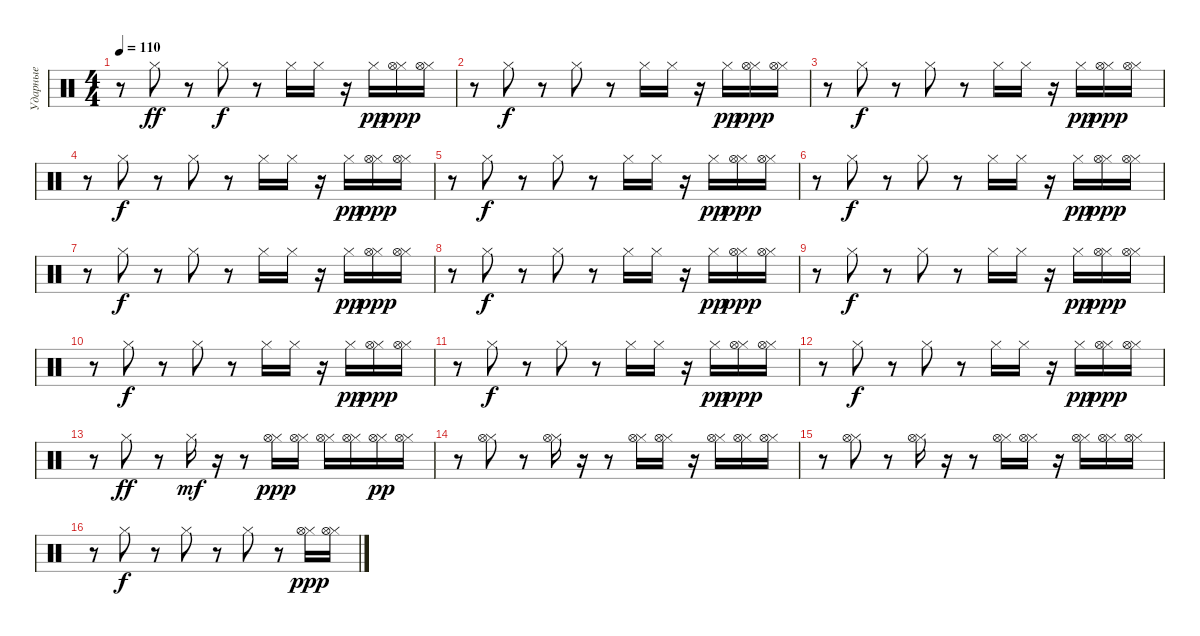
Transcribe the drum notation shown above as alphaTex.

\track ("Ударные" "Ударные") {instrument percussion}
\staff {score}
\articulation defaults
\ts (4 4)
\tempo 110
\clef neutral
\ks c
r.8{dy ff} "Hi-Hat (closed)".8 r.8 "Hi-Hat (closed)".8{dy f} r.8 "Hi-Hat (closed)".16 "Hi-Hat (closed)".16 r.16 "Hi-Hat (closed)".16{dy pp} ("Hi-Hat (closed)" "Hi-Hat (open)").16{dy ppp} ("Hi-Hat (closed)" "Hi-Hat (open)").16 |
r.8 "Hi-Hat (closed)".8{dy f} r.8 "Hi-Hat (closed)".8 r.8 "Hi-Hat (closed)".16 "Hi-Hat (closed)".16 r.16 "Hi-Hat (closed)".16{dy pp} ("Hi-Hat (closed)" "Hi-Hat (open)").16{dy ppp} ("Hi-Hat (closed)" "Hi-Hat (open)").16 |
r.8 "Hi-Hat (closed)".8{dy f} r.8 "Hi-Hat (closed)".8 r.8 "Hi-Hat (closed)".16 "Hi-Hat (closed)".16 r.16 "Hi-Hat (closed)".16{dy pp} ("Hi-Hat (closed)" "Hi-Hat (open)").16{dy ppp} ("Hi-Hat (closed)" "Hi-Hat (open)").16 |
r.8 "Hi-Hat (closed)".8{dy f} r.8 "Hi-Hat (closed)".8 r.8 "Hi-Hat (closed)".16 "Hi-Hat (closed)".16 r.16 "Hi-Hat (closed)".16{dy pp} ("Hi-Hat (closed)" "Hi-Hat (open)").16{dy ppp} ("Hi-Hat (closed)" "Hi-Hat (open)").16 |
r.8 "Hi-Hat (closed)".8{dy f} r.8 "Hi-Hat (closed)".8 r.8 "Hi-Hat (closed)".16 "Hi-Hat (closed)".16 r.16 "Hi-Hat (closed)".16{dy pp} ("Hi-Hat (closed)" "Hi-Hat (open)").16{dy ppp} ("Hi-Hat (closed)" "Hi-Hat (open)").16 |
r.8 "Hi-Hat (closed)".8{dy f} r.8 "Hi-Hat (closed)".8 r.8 "Hi-Hat (closed)".16 "Hi-Hat (closed)".16 r.16 "Hi-Hat (closed)".16{dy pp} ("Hi-Hat (closed)" "Hi-Hat (open)").16{dy ppp} ("Hi-Hat (closed)" "Hi-Hat (open)").16 |
r.8 "Hi-Hat (closed)".8{dy f} r.8 "Hi-Hat (closed)".8 r.8 "Hi-Hat (closed)".16 "Hi-Hat (closed)".16 r.16 "Hi-Hat (closed)".16{dy pp} ("Hi-Hat (closed)" "Hi-Hat (open)").16{dy ppp} ("Hi-Hat (closed)" "Hi-Hat (open)").16 |
r.8 "Hi-Hat (closed)".8{dy f} r.8 "Hi-Hat (closed)".8 r.8 "Hi-Hat (closed)".16 "Hi-Hat (closed)".16 r.16 "Hi-Hat (closed)".16{dy pp} ("Hi-Hat (closed)" "Hi-Hat (open)").16{dy ppp} ("Hi-Hat (closed)" "Hi-Hat (open)").16 |
r.8 "Hi-Hat (closed)".8{dy f} r.8 "Hi-Hat (closed)".8 r.8 "Hi-Hat (closed)".16 "Hi-Hat (closed)".16 r.16 "Hi-Hat (closed)".16{dy pp} ("Hi-Hat (closed)" "Hi-Hat (open)").16{dy ppp} ("Hi-Hat (closed)" "Hi-Hat (open)").16 |
r.8 "Hi-Hat (closed)".8{dy f} r.8 "Hi-Hat (closed)".8 r.8 "Hi-Hat (closed)".16 "Hi-Hat (closed)".16 r.16 "Hi-Hat (closed)".16{dy pp} ("Hi-Hat (closed)" "Hi-Hat (open)").16{dy ppp} ("Hi-Hat (closed)" "Hi-Hat (open)").16 |
r.8 "Hi-Hat (closed)".8{dy f} r.8 "Hi-Hat (closed)".8 r.8 "Hi-Hat (closed)".16 "Hi-Hat (closed)".16 r.16 "Hi-Hat (closed)".16{dy pp} ("Hi-Hat (closed)" "Hi-Hat (open)").16{dy ppp} ("Hi-Hat (closed)" "Hi-Hat (open)").16 |
r.8 "Hi-Hat (closed)".8{dy f} r.8 "Hi-Hat (closed)".8 r.8 "Hi-Hat (closed)".16 "Hi-Hat (closed)".16 r.16 "Hi-Hat (closed)".16{dy pp} ("Hi-Hat (closed)" "Hi-Hat (open)").16{dy ppp} ("Hi-Hat (closed)" "Hi-Hat (open)").16 |
r.8 "Hi-Hat (closed)".8{dy ff} r.8 "Hi-Hat (closed)".16{dy mf} r.16 r.8 ("Hi-Hat (closed)" "Hi-Hat (open)").16{dy ppp} ("Hi-Hat (closed)" "Hi-Hat (open)").16 ("Hi-Hat (closed)" "Hi-Hat (open)").16 ("Hi-Hat (closed)" "Hi-Hat (open)").16 ("Hi-Hat (closed)" "Hi-Hat (open)").16{dy pp} ("Hi-Hat (closed)" "Hi-Hat (open)").16 |
r.8 ("Hi-Hat (closed)" "Hi-Hat (open)").8 r.8 ("Hi-Hat (closed)" "Hi-Hat (open)").16 r.16 r.8 ("Hi-Hat (closed)" "Hi-Hat (open)").16 ("Hi-Hat (closed)" "Hi-Hat (open)").16 r.16 ("Hi-Hat (closed)" "Hi-Hat (open)").16 ("Hi-Hat (closed)" "Hi-Hat (open)").16 ("Hi-Hat (closed)" "Hi-Hat (open)").16 |
r.8 ("Hi-Hat (closed)" "Hi-Hat (open)").8 r.8 ("Hi-Hat (closed)" "Hi-Hat (open)").16 r.16 r.8 ("Hi-Hat (closed)" "Hi-Hat (open)").16 ("Hi-Hat (closed)" "Hi-Hat (open)").16 r.16 ("Hi-Hat (closed)" "Hi-Hat (open)").16 ("Hi-Hat (closed)" "Hi-Hat (open)").16 ("Hi-Hat (closed)" "Hi-Hat (open)").16 |
r.8 "Hi-Hat (closed)".8{dy f} r.8 "Hi-Hat (closed)".8 r.8 "Hi-Hat (closed)".8 r.8 ("Hi-Hat (closed)" "Hi-Hat (open)").16{dy ppp} ("Hi-Hat (closed)" "Hi-Hat (open)").16
